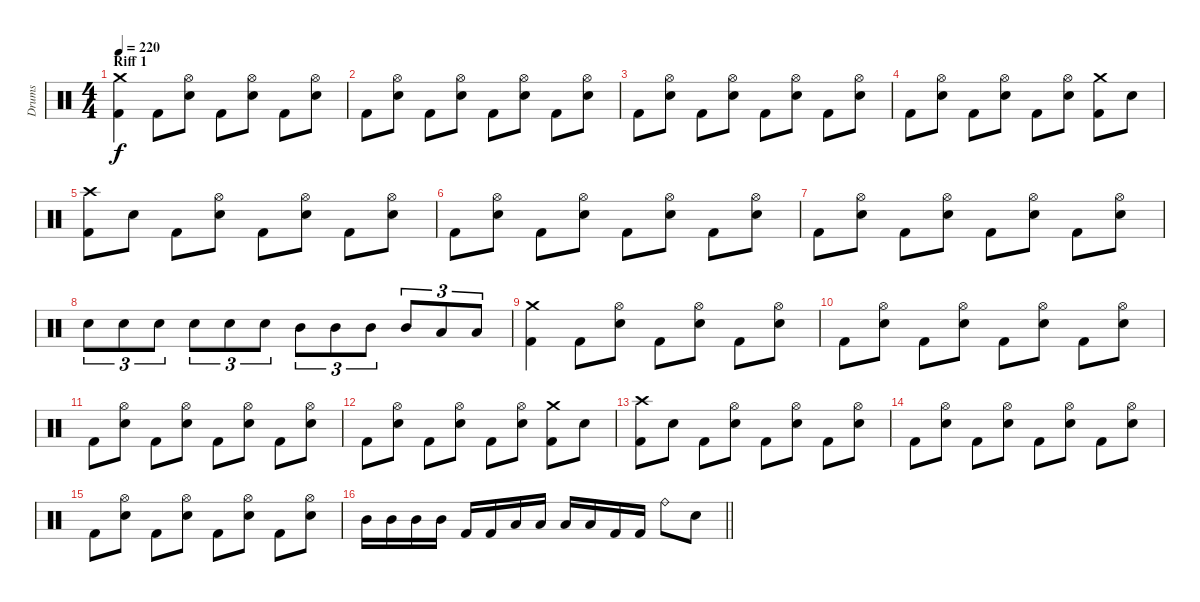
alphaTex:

\track ("Drums" "Drums") {instrument percussion}
\staff {score}
\articulation defaults
\ts (4 4)
\section ("" "Riff 1")
\tempo 220
\clef neutral
\ks c
("Crash medium (hit)" "Kick (hit) 2").4{dy f} "Kick (hit) 2".8 ("Electric Snare (hit)" "Hi-Hat (open)").8 "Kick (hit) 2".8 ("Electric Snare (hit)" "Hi-Hat (open)").8 "Kick (hit) 2".8 ("Electric Snare (hit)" "Hi-Hat (open)").8 |
"Kick (hit) 2".8 ("Electric Snare (hit)" "Hi-Hat (open)").8 "Kick (hit) 2".8 ("Electric Snare (hit)" "Hi-Hat (open)").8 "Kick (hit) 2".8 ("Electric Snare (hit)" "Hi-Hat (open)").8 "Kick (hit) 2".8 ("Electric Snare (hit)" "Hi-Hat (open)").8 |
"Kick (hit) 2".8 ("Electric Snare (hit)" "Hi-Hat (open)").8 "Kick (hit) 2".8 ("Electric Snare (hit)" "Hi-Hat (open)").8 "Kick (hit) 2".8 ("Electric Snare (hit)" "Hi-Hat (open)").8 "Kick (hit) 2".8 ("Electric Snare (hit)" "Hi-Hat (open)").8 |
"Kick (hit) 2".8 ("Electric Snare (hit)" "Hi-Hat (open)").8 "Kick (hit) 2".8 ("Electric Snare (hit)" "Hi-Hat (open)").8 "Kick (hit) 2".8 ("Electric Snare (hit)" "Hi-Hat (open)").8 ("Kick (hit) 2" "Crash medium (hit)").8 "Electric Snare (hit)".8 |
("Kick (hit) 2" "Crash high (hit)").8 "Electric Snare (hit)".8 "Kick (hit) 2".8 ("Electric Snare (hit)" "Hi-Hat (open)").8 "Kick (hit) 2".8 ("Electric Snare (hit)" "Hi-Hat (open)").8 "Kick (hit) 2".8 ("Electric Snare (hit)" "Hi-Hat (open)").8 |
"Kick (hit) 2".8 ("Electric Snare (hit)" "Hi-Hat (open)").8 "Kick (hit) 2".8 ("Electric Snare (hit)" "Hi-Hat (open)").8 "Kick (hit) 2".8 ("Electric Snare (hit)" "Hi-Hat (open)").8 "Kick (hit) 2".8 ("Electric Snare (hit)" "Hi-Hat (open)").8 |
"Kick (hit) 2".8 ("Electric Snare (hit)" "Hi-Hat (open)").8 "Kick (hit) 2".8 ("Electric Snare (hit)" "Hi-Hat (open)").8 "Kick (hit) 2".8 ("Electric Snare (hit)" "Hi-Hat (open)").8 "Kick (hit) 2".8 ("Electric Snare (hit)" "Hi-Hat (open)").8 |
"Electric Snare (hit)".8{tu (3 2)} "Electric Snare (hit)".8{tu (3 2)} "Electric Snare (hit)".8{tu (3 2)} "Electric Snare (hit)".8{tu (3 2)} "Electric Snare (hit)".8{tu (3 2)} "Electric Snare (hit)".8{tu (3 2)} "Mid Tom (hit)".8{tu (3 2)} "Mid Tom (hit)".8{tu (3 2)} "Mid Tom (hit)".8{tu (3 2)} "Mid Tom (hit)".8{tu (3 2)} "Low Tom (hit)".8{tu (3 2)} "Low Tom (hit)".8{tu (3 2)} |
("Crash medium (hit)" "Kick (hit) 2").4 "Kick (hit) 2".8 ("Electric Snare (hit)" "Hi-Hat (open)").8 "Kick (hit) 2".8 ("Electric Snare (hit)" "Hi-Hat (open)").8 "Kick (hit) 2".8 ("Electric Snare (hit)" "Hi-Hat (open)").8 |
"Kick (hit) 2".8 ("Electric Snare (hit)" "Hi-Hat (open)").8 "Kick (hit) 2".8 ("Electric Snare (hit)" "Hi-Hat (open)").8 "Kick (hit) 2".8 ("Electric Snare (hit)" "Hi-Hat (open)").8 "Kick (hit) 2".8 ("Electric Snare (hit)" "Hi-Hat (open)").8 |
"Kick (hit) 2".8 ("Electric Snare (hit)" "Hi-Hat (open)").8 "Kick (hit) 2".8 ("Electric Snare (hit)" "Hi-Hat (open)").8 "Kick (hit) 2".8 ("Electric Snare (hit)" "Hi-Hat (open)").8 "Kick (hit) 2".8 ("Electric Snare (hit)" "Hi-Hat (open)").8 |
"Kick (hit) 2".8 ("Electric Snare (hit)" "Hi-Hat (open)").8 "Kick (hit) 2".8 ("Electric Snare (hit)" "Hi-Hat (open)").8 "Kick (hit) 2".8 ("Electric Snare (hit)" "Hi-Hat (open)").8 ("Kick (hit) 2" "Crash medium (hit)").8 "Electric Snare (hit)".8 |
("Kick (hit) 2" "Crash high (hit)").8 "Electric Snare (hit)".8 "Kick (hit) 2".8 ("Electric Snare (hit)" "Hi-Hat (open)").8 "Kick (hit) 2".8 ("Electric Snare (hit)" "Hi-Hat (open)").8 "Kick (hit) 2".8 ("Electric Snare (hit)" "Hi-Hat (open)").8 |
"Kick (hit) 2".8 ("Electric Snare (hit)" "Hi-Hat (open)").8 "Kick (hit) 2".8 ("Electric Snare (hit)" "Hi-Hat (open)").8 "Kick (hit) 2".8 ("Electric Snare (hit)" "Hi-Hat (open)").8 "Kick (hit) 2".8 ("Electric Snare (hit)" "Hi-Hat (open)").8 |
"Kick (hit) 2".8 ("Electric Snare (hit)" "Hi-Hat (open)").8 "Kick (hit) 2".8 ("Electric Snare (hit)" "Hi-Hat (open)").8 "Kick (hit) 2".8 ("Electric Snare (hit)" "Hi-Hat (open)").8 "Kick (hit) 2".8 ("Electric Snare (hit)" "Hi-Hat (open)").8 |
\barLineRight lightlight "Mid Tom (hit)".16 "Mid Tom (hit)".16 "Mid Tom (hit)".16 "Mid Tom (hit)".16 "Kick (hit) 2".16 "Kick (hit) 2".16 "Low Tom (hit)".16 "Low Tom (hit)".16 "Low Tom (hit)".16 "Low Tom (hit)".16 "Kick (hit) 2".16 "Kick (hit) 2".16 "Ride (bell)".8 "Electric Snare (hit)".8
